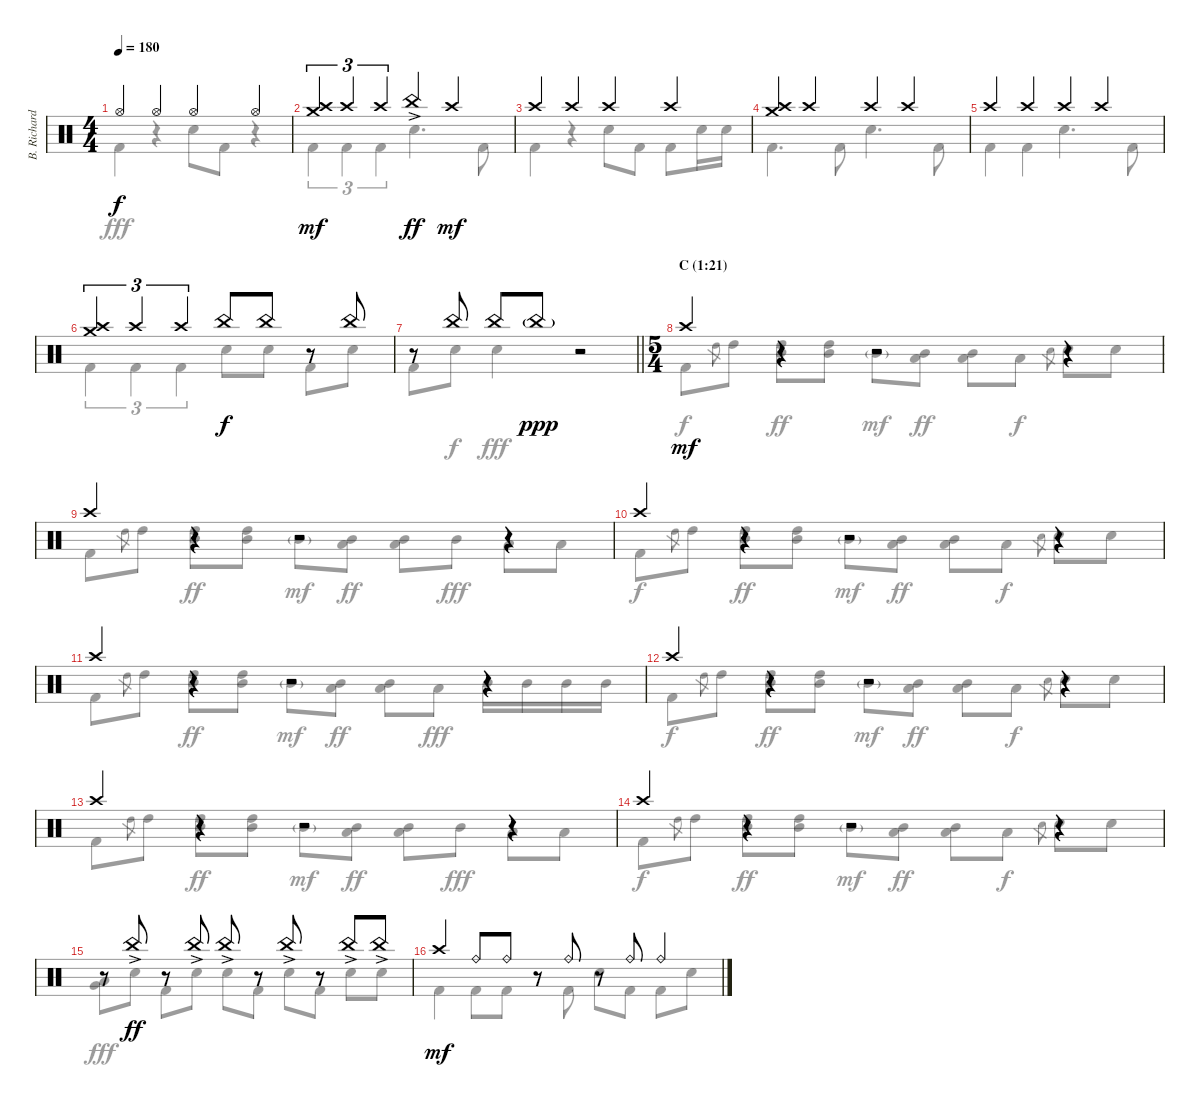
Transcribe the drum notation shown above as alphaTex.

\track ("B. Richardson Drums" "B. Richard") {instrument percussion}
\staff {score}
\articulation defaults
\voice
\ts (4 4)
\tempo 180
\clef neutral
\ks c "Hi-Hat (open)".4{dy f} "Hi-Hat (open)".4 "Hi-Hat (open)".4 "Hi-Hat (open)".4
|
("Crash high (hit)" "Crash medium (hit)").4{tu (3 2) dy mf} "Crash high (hit)".4{tu (3 2)} "Crash high (hit)".4{tu (3 2)} "China (hit)"{ac}.4{dy ff} "Crash high (hit)".4{dy mf} |
"Crash high (hit)".4 "Crash high (hit)".4 "Crash high (hit)".4 "Crash high (hit)".4 |
("Crash high (hit)" "Crash medium (hit)").4 "Crash high (hit)".4 "Crash high (hit)".4 "Crash high (hit)".4 |
"Crash high (hit)".4 "Crash high (hit)".4 "Crash high (hit)".4 "Crash high (hit)".4 |
("Crash high (hit)" "Crash medium (hit)").4{tu (3 2)} "Crash high (hit)".4{tu (3 2)} "Crash high (hit)".4{tu (3 2)} "China (hit)".8{dy f} "China (hit)".8 r.8 "China (hit)".8 |
\barLineRight lightlight
r.8 "China (hit)".8 "China (hit)".8 "China (hit)"{g}.8{dy ppp} r.2 |
\ts (5 4)
\section ("" "C (1:21)")
"Crash high (hit)".4{dy mf} r.4 r.2 r.4 |
"Crash high (hit)".4 r.4 r.2 r.4 |
"Crash high (hit)".4 r.4 r.2 r.4 |
"Crash high (hit)".4 r.4 r.2 r.4 |
"Crash high (hit)".4 r.4 r.2 r.4 |
"Crash high (hit)".4 r.4 r.2 r.4 |
"Crash high (hit)".4 r.4 r.2 r.4 |
r.8 "China (hit)"{ac}.8{dy ff} r.8 "China (hit)"{ac}.8 "China (hit)"{ac}.8 r.8 "China (hit)"{ac}.8 r.8 "China (hit)"{ac}.8 "China (hit)"{ac}.8 |
"Crash high (hit)".4{dy mf} "Ride (bell)".8 "Ride (bell)".8 r.8 "Ride (bell)".8 r.8 "Ride (bell)".8 "Ride (bell)".4
\voice
\clef neutral
\ottava regular
\simile none
\ks c "Kick (hit) 2".4{dy fff}
r.4 "Electric Snare (hit)".8 "Kick (hit) 2".8 r.4 |
"Kick (hit) 2".4{tu (3 2)} "Kick (hit) 2".4{tu (3 2)} "Kick (hit) 2".4{tu (3 2)} "Electric Snare (hit)".4{d} "Kick (hit) 2".8 |
"Kick (hit) 2".4 r.4 "Electric Snare (hit)".8 "Kick (hit) 2".8 "Kick (hit) 2".8 "Electric Snare (hit)".16 "Electric Snare (hit)".16 |
"Kick (hit) 2".4{d} "Kick (hit) 2".8 "Electric Snare (hit)".4{d} "Kick (hit) 2".8 |
"Kick (hit) 2".4 "Kick (hit) 2".4 "Electric Snare (hit)".4{d} "Kick (hit) 2".8 |
"Kick (hit) 2".4{tu (3 2)} "Kick (hit) 2".4{tu (3 2)} "Kick (hit) 2".4{tu (3 2)} "Electric Snare (hit)".8 "Electric Snare (hit)".8 "Kick (hit) 2".8 "Electric Snare (hit)".8 |
\barLineRight lightlight "Kick (hit) 2".8 "Electric Snare (hit)".8{dy f} "Electric Snare (hit)".4{dy fff}
r.2 |
"Kick (hit) 2".8{dy f} "High Tom (hit)".8{gr} "High Tom (hit)".8 ("High Tom (hit)" "Mid Tom (hit)").8{dy ff} ("High Tom (hit)" "Mid Tom (hit)").8 "Mid Tom (hit)"{g}.8{dy mf} ("Mid Tom (hit)" "Low Tom (hit)").8{dy ff} ("Mid Tom (hit)" "Low Tom (hit)").8 "Low Tom (hit)".8{dy f} "Electric Snare (hit)".8{gr} "Electric Snare (hit)".8 "Electric Snare (hit)".8 |
"Kick (hit) 2".8 "High Tom (hit)".8{gr} "High Tom (hit)".8 ("High Tom (hit)" "Mid Tom (hit)").8{dy ff} ("High Tom (hit)" "Mid Tom (hit)").8 "Mid Tom (hit)"{g}.8{dy mf} ("Mid Tom (hit)" "Low Tom (hit)").8{dy ff} ("Mid Tom (hit)" "Low Tom (hit)").8 "Mid Tom (hit)".8{dy fff} "Low Tom (hit)".8 "Low Tom (hit)".8 |
"Kick (hit) 2".8{dy f} "High Tom (hit)".8{gr} "High Tom (hit)".8 ("High Tom (hit)" "Mid Tom (hit)").8{dy ff} ("High Tom (hit)" "Mid Tom (hit)").8 "Mid Tom (hit)"{g}.8{dy mf} ("Mid Tom (hit)" "Low Tom (hit)").8{dy ff} ("Mid Tom (hit)" "Low Tom (hit)").8 "Low Tom (hit)".8{dy f} "Electric Snare (hit)".8{gr} "Electric Snare (hit)".8 "Electric Snare (hit)".8 |
"Kick (hit) 2".8 "High Tom (hit)".8{gr} "High Tom (hit)".8 ("High Tom (hit)" "Mid Tom (hit)").8{dy ff} ("High Tom (hit)" "Mid Tom (hit)").8 "Mid Tom (hit)"{g}.8{dy mf} ("Mid Tom (hit)" "Low Tom (hit)").8{dy ff} ("Mid Tom (hit)" "Low Tom (hit)").8 "Low Tom (hit)".8{dy fff} "Mid Tom (hit)".16 "Mid Tom (hit)".16 "Mid Tom (hit)".16 "Mid Tom (hit)".16 |
"Kick (hit) 2".8{dy f} "High Tom (hit)".8{gr} "High Tom (hit)".8 ("High Tom (hit)" "Mid Tom (hit)").8{dy ff} ("High Tom (hit)" "Mid Tom (hit)").8 "Mid Tom (hit)"{g}.8{dy mf} ("Mid Tom (hit)" "Low Tom (hit)").8{dy ff} ("Mid Tom (hit)" "Low Tom (hit)").8 "Low Tom (hit)".8{dy f} "Electric Snare (hit)".8{gr} "Electric Snare (hit)".8 "Electric Snare (hit)".8 |
"Kick (hit) 2".8 "High Tom (hit)".8{gr} "High Tom (hit)".8 ("High Tom (hit)" "Mid Tom (hit)").8{dy ff} ("High Tom (hit)" "Mid Tom (hit)").8 "Mid Tom (hit)"{g}.8{dy mf} ("Mid Tom (hit)" "Low Tom (hit)").8{dy ff} ("Mid Tom (hit)" "Low Tom (hit)").8 "Mid Tom (hit)".8{dy fff} "Low Tom (hit)".8 "Low Tom (hit)".8 |
"Kick (hit) 2".8{dy f} "High Tom (hit)".8{gr} "High Tom (hit)".8 ("High Tom (hit)" "Mid Tom (hit)").8{dy ff} ("High Tom (hit)" "Mid Tom (hit)").8 "Mid Tom (hit)"{g}.8{dy mf} ("Mid Tom (hit)" "Low Tom (hit)").8{dy ff} ("Mid Tom (hit)" "Low Tom (hit)").8 "Low Tom (hit)".8{dy f} "Electric Snare (hit)".8{gr} "Electric Snare (hit)".8 "Electric Snare (hit)".8 |
("Low Tom (hit)" "Very Low Tom (hit)").8{dy fff} "Electric Snare (hit)".8 "Kick (hit) 2".8 "Electric Snare (hit)".8 "Electric Snare (hit)".8 "Kick (hit) 2".8 "Electric Snare (hit)".8 "Kick (hit) 2".8 "Electric Snare (hit)".8 "Electric Snare (hit)".8 |
"Kick (hit) 2".4 "Kick (hit) 2".8 "Kick (hit) 2".8 r.8 "Kick (hit) 2".8 "Electric Snare (hit)".8 "Kick (hit) 2".8 "Kick (hit) 2".8 "Electric Snare (hit)".8
